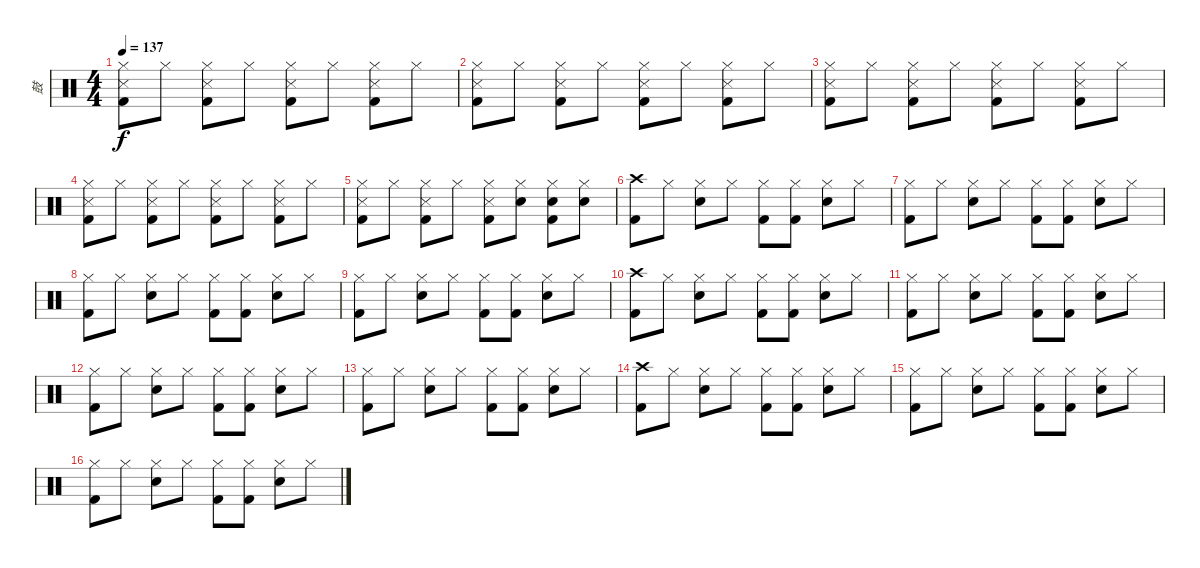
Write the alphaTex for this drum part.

\track ("鼓" "鼓") {instrument percussion}
\staff {score}
\articulation defaults
\ts (4 4)
\tempo 137
\clef neutral
\ks c
("Hi-Hat (closed)" "Snare (side stick) 3" "Kick (hit) 2").8{dy f} "Hi-Hat (closed)".8 ("Hi-Hat (closed)" "Snare (side stick) 3" "Kick (hit) 2").8 "Hi-Hat (closed)".8 ("Hi-Hat (closed)" "Snare (side stick) 3" "Kick (hit) 2").8 "Hi-Hat (closed)".8 ("Hi-Hat (closed)" "Snare (side stick) 3" "Kick (hit) 2").8 "Hi-Hat (closed)".8 |
("Hi-Hat (closed)" "Snare (side stick) 3" "Kick (hit) 2").8 "Hi-Hat (closed)".8 ("Hi-Hat (closed)" "Snare (side stick) 3" "Kick (hit) 2").8 "Hi-Hat (closed)".8 ("Hi-Hat (closed)" "Snare (side stick) 3" "Kick (hit) 2").8 "Hi-Hat (closed)".8 ("Hi-Hat (closed)" "Snare (side stick) 3" "Kick (hit) 2").8 "Hi-Hat (closed)".8 |
("Hi-Hat (closed)" "Snare (side stick) 3" "Kick (hit) 2").8 "Hi-Hat (closed)".8 ("Hi-Hat (closed)" "Snare (side stick) 3" "Kick (hit) 2").8 "Hi-Hat (closed)".8 ("Hi-Hat (closed)" "Snare (side stick) 3" "Kick (hit) 2").8 "Hi-Hat (closed)".8 ("Hi-Hat (closed)" "Snare (side stick) 3" "Kick (hit) 2").8 "Hi-Hat (closed)".8 |
("Hi-Hat (closed)" "Snare (side stick) 3" "Kick (hit) 2").8 "Hi-Hat (closed)".8 ("Hi-Hat (closed)" "Snare (side stick) 3" "Kick (hit) 2").8 "Hi-Hat (closed)".8 ("Hi-Hat (closed)" "Snare (side stick) 3" "Kick (hit) 2").8 "Hi-Hat (closed)".8 ("Hi-Hat (closed)" "Snare (side stick) 3" "Kick (hit) 2").8 "Hi-Hat (closed)".8 |
("Hi-Hat (closed)" "Snare (side stick) 3" "Kick (hit) 2").8 "Hi-Hat (closed)".8 ("Hi-Hat (closed)" "Snare (side stick) 3" "Kick (hit) 2").8 "Hi-Hat (closed)".8 ("Hi-Hat (closed)" "Snare (side stick) 3" "Kick (hit) 2").8 ("Hi-Hat (closed)" "Snare (hit) 2").8 ("Hi-Hat (closed)" "Snare (hit) 2" "Kick (hit) 2").8 ("Hi-Hat (closed)" "Snare (hit) 2").8 |
("Crash high (hit)" "Kick (hit) 2").8 "Hi-Hat (closed)".8 ("Hi-Hat (closed)" "Snare (hit) 2").8 "Hi-Hat (closed)".8 ("Hi-Hat (closed)" "Kick (hit) 2").8 ("Hi-Hat (closed)" "Kick (hit) 2").8 ("Hi-Hat (closed)" "Snare (hit) 2").8 "Hi-Hat (closed)".8 |
("Hi-Hat (closed)" "Kick (hit) 2").8 "Hi-Hat (closed)".8 ("Hi-Hat (closed)" "Snare (hit) 2").8 "Hi-Hat (closed)".8 ("Hi-Hat (closed)" "Kick (hit) 2").8 ("Hi-Hat (closed)" "Kick (hit) 2").8 ("Hi-Hat (closed)" "Snare (hit) 2").8 "Hi-Hat (closed)".8 |
("Hi-Hat (closed)" "Kick (hit) 2").8 "Hi-Hat (closed)".8 ("Hi-Hat (closed)" "Snare (hit) 2").8 "Hi-Hat (closed)".8 ("Hi-Hat (closed)" "Kick (hit) 2").8 ("Hi-Hat (closed)" "Kick (hit) 2").8 ("Hi-Hat (closed)" "Snare (hit) 2").8 "Hi-Hat (closed)".8 |
("Hi-Hat (closed)" "Kick (hit) 2").8 "Hi-Hat (closed)".8 ("Hi-Hat (closed)" "Snare (hit) 2").8 "Hi-Hat (closed)".8 ("Hi-Hat (closed)" "Kick (hit) 2").8 ("Hi-Hat (closed)" "Kick (hit) 2").8 ("Hi-Hat (closed)" "Snare (hit) 2").8 "Hi-Hat (closed)".8 |
("Crash high (hit)" "Kick (hit) 2").8 "Hi-Hat (closed)".8 ("Hi-Hat (closed)" "Snare (hit) 2").8 "Hi-Hat (closed)".8 ("Hi-Hat (closed)" "Kick (hit) 2").8 ("Hi-Hat (closed)" "Kick (hit) 2").8 ("Hi-Hat (closed)" "Snare (hit) 2").8 "Hi-Hat (closed)".8 |
("Hi-Hat (closed)" "Kick (hit) 2").8 "Hi-Hat (closed)".8 ("Hi-Hat (closed)" "Snare (hit) 2").8 "Hi-Hat (closed)".8 ("Hi-Hat (closed)" "Kick (hit) 2").8 ("Hi-Hat (closed)" "Kick (hit) 2").8 ("Hi-Hat (closed)" "Snare (hit) 2").8 "Hi-Hat (closed)".8 |
("Hi-Hat (closed)" "Kick (hit) 2").8 "Hi-Hat (closed)".8 ("Hi-Hat (closed)" "Snare (hit) 2").8 "Hi-Hat (closed)".8 ("Hi-Hat (closed)" "Kick (hit) 2").8 ("Hi-Hat (closed)" "Kick (hit) 2").8 ("Hi-Hat (closed)" "Snare (hit) 2").8 "Hi-Hat (closed)".8 |
("Hi-Hat (closed)" "Kick (hit) 2").8 "Hi-Hat (closed)".8 ("Hi-Hat (closed)" "Snare (hit) 2").8 "Hi-Hat (closed)".8 ("Hi-Hat (closed)" "Kick (hit) 2").8 ("Hi-Hat (closed)" "Kick (hit) 2").8 ("Hi-Hat (closed)" "Snare (hit) 2").8 "Hi-Hat (closed)".8 |
("Crash high (hit)" "Kick (hit) 2").8 "Hi-Hat (closed)".8 ("Hi-Hat (closed)" "Snare (hit) 2").8 "Hi-Hat (closed)".8 ("Hi-Hat (closed)" "Kick (hit) 2").8 ("Hi-Hat (closed)" "Kick (hit) 2").8 ("Hi-Hat (closed)" "Snare (hit) 2").8 "Hi-Hat (closed)".8 |
("Hi-Hat (closed)" "Kick (hit) 2").8 "Hi-Hat (closed)".8 ("Hi-Hat (closed)" "Snare (hit) 2").8 "Hi-Hat (closed)".8 ("Hi-Hat (closed)" "Kick (hit) 2").8 ("Hi-Hat (closed)" "Kick (hit) 2").8 ("Hi-Hat (closed)" "Snare (hit) 2").8 "Hi-Hat (closed)".8 |
("Hi-Hat (closed)" "Kick (hit) 2").8 "Hi-Hat (closed)".8 ("Hi-Hat (closed)" "Snare (hit) 2").8 "Hi-Hat (closed)".8 ("Hi-Hat (closed)" "Kick (hit) 2").8 ("Hi-Hat (closed)" "Kick (hit) 2").8 ("Hi-Hat (closed)" "Snare (hit) 2").8 "Hi-Hat (closed)".8
